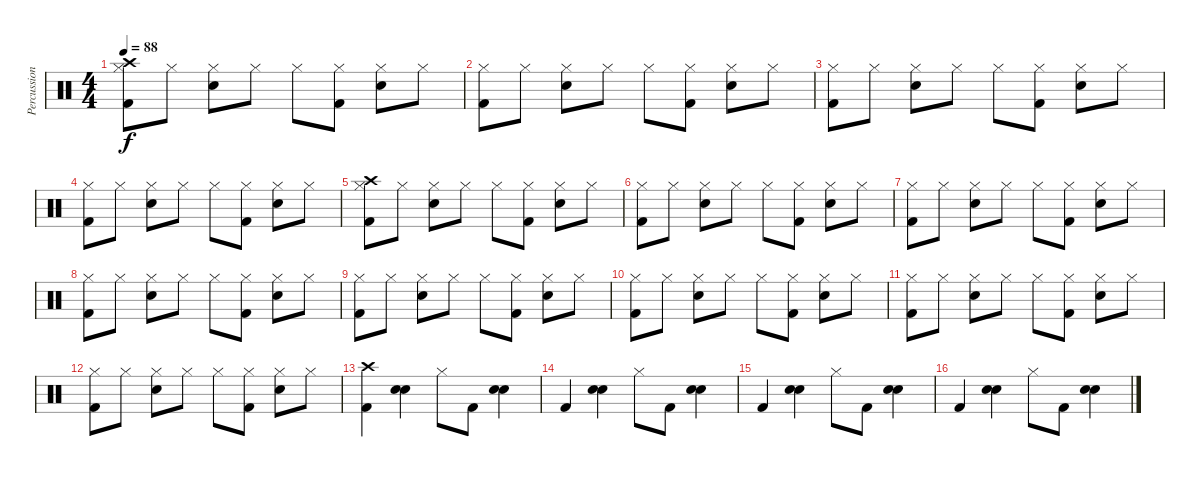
\track ("Percussion" "Percussion") {instrument percussion}
\staff {score}
\articulation defaults
\ts (4 4)
\tempo 88
\clef neutral
\ks c
("Crash high (hit)" "Hi-Hat (closed)" "Kick (hit) 2").8{dy f} "Hi-Hat (closed)".8 ("Hi-Hat (closed)" "Snare (hit) 2").8 "Hi-Hat (closed)".8 "Hi-Hat (closed)".8 ("Hi-Hat (closed)" "Kick (hit) 2").8 ("Hi-Hat (closed)" "Snare (hit) 2").8 "Hi-Hat (closed)".8 |
("Hi-Hat (closed)" "Kick (hit) 2").8 "Hi-Hat (closed)".8 ("Hi-Hat (closed)" "Snare (hit) 2").8 "Hi-Hat (closed)".8 "Hi-Hat (closed)".8 ("Hi-Hat (closed)" "Kick (hit) 2").8 ("Hi-Hat (closed)" "Snare (hit) 2").8 "Hi-Hat (closed)".8 |
("Hi-Hat (closed)" "Kick (hit) 2").8 "Hi-Hat (closed)".8 ("Hi-Hat (closed)" "Snare (hit) 2").8 "Hi-Hat (closed)".8 "Hi-Hat (closed)".8 ("Hi-Hat (closed)" "Kick (hit) 2").8 ("Hi-Hat (closed)" "Snare (hit) 2").8 "Hi-Hat (closed)".8 |
("Hi-Hat (closed)" "Kick (hit) 2").8 "Hi-Hat (closed)".8 ("Hi-Hat (closed)" "Snare (hit) 2").8 "Hi-Hat (closed)".8 "Hi-Hat (closed)".8 ("Hi-Hat (closed)" "Kick (hit) 2").8 ("Hi-Hat (closed)" "Snare (hit) 2").8 "Hi-Hat (closed)".8 |
("Crash high (hit)" "Hi-Hat (closed)" "Kick (hit) 2").8 "Hi-Hat (closed)".8 ("Hi-Hat (closed)" "Snare (hit) 2").8 "Hi-Hat (closed)".8 "Hi-Hat (closed)".8 ("Hi-Hat (closed)" "Kick (hit) 2").8 ("Hi-Hat (closed)" "Snare (hit) 2").8 "Hi-Hat (closed)".8 |
("Hi-Hat (closed)" "Kick (hit) 2").8 "Hi-Hat (closed)".8 ("Hi-Hat (closed)" "Snare (hit) 2").8 "Hi-Hat (closed)".8 "Hi-Hat (closed)".8 ("Hi-Hat (closed)" "Kick (hit) 2").8 ("Hi-Hat (closed)" "Snare (hit) 2").8 "Hi-Hat (closed)".8 |
("Hi-Hat (closed)" "Kick (hit) 2").8 "Hi-Hat (closed)".8 ("Hi-Hat (closed)" "Snare (hit) 2").8 "Hi-Hat (closed)".8 "Hi-Hat (closed)".8 ("Hi-Hat (closed)" "Kick (hit) 2").8 ("Hi-Hat (closed)" "Snare (hit) 2").8 "Hi-Hat (closed)".8 |
("Hi-Hat (closed)" "Kick (hit) 2").8 "Hi-Hat (closed)".8 ("Hi-Hat (closed)" "Snare (hit) 2").8 "Hi-Hat (closed)".8 "Hi-Hat (closed)".8 ("Hi-Hat (closed)" "Kick (hit) 2").8 ("Hi-Hat (closed)" "Snare (hit) 2").8 "Hi-Hat (closed)".8 |
("Hi-Hat (closed)" "Kick (hit) 2").8 "Hi-Hat (closed)".8 ("Hi-Hat (closed)" "Snare (hit) 2").8 "Hi-Hat (closed)".8 "Hi-Hat (closed)".8 ("Hi-Hat (closed)" "Kick (hit) 2").8 ("Hi-Hat (closed)" "Snare (hit) 2").8 "Hi-Hat (closed)".8 |
("Hi-Hat (closed)" "Kick (hit) 2").8 "Hi-Hat (closed)".8 ("Hi-Hat (closed)" "Snare (hit) 2").8 "Hi-Hat (closed)".8 "Hi-Hat (closed)".8 ("Hi-Hat (closed)" "Kick (hit) 2").8 ("Hi-Hat (closed)" "Snare (hit) 2").8 "Hi-Hat (closed)".8 |
("Hi-Hat (closed)" "Kick (hit) 2").8 "Hi-Hat (closed)".8 ("Hi-Hat (closed)" "Snare (hit) 2").8 "Hi-Hat (closed)".8 "Hi-Hat (closed)".8 ("Hi-Hat (closed)" "Kick (hit) 2").8 ("Hi-Hat (closed)" "Snare (hit) 2").8 "Hi-Hat (closed)".8 |
("Hi-Hat (closed)" "Kick (hit) 2").8 "Hi-Hat (closed)".8 ("Hi-Hat (closed)" "Snare (hit) 2").8 "Hi-Hat (closed)".8 "Hi-Hat (closed)".8 ("Hi-Hat (closed)" "Kick (hit) 2").8 ("Hi-Hat (closed)" "Snare (hit) 2").8 "Hi-Hat (closed)".8 |
("Crash high (hit)" "Kick (hit) 2").4 ("Snare (hit) 2" "Snare (hit) 2").4 "Hi-Hat (closed)".8 "Kick (hit) 2".8 ("Snare (hit) 2" "Snare (hit) 2").4 |
"Kick (hit) 2".4 ("Snare (hit) 2" "Snare (hit) 2").4 "Hi-Hat (closed)".8 "Kick (hit) 2".8 ("Snare (hit) 2" "Snare (hit) 2").4 |
"Kick (hit) 2".4 ("Snare (hit) 2" "Snare (hit) 2").4 "Hi-Hat (closed)".8 "Kick (hit) 2".8 ("Snare (hit) 2" "Snare (hit) 2").4 |
"Kick (hit) 2".4 ("Snare (hit) 2" "Snare (hit) 2").4 "Hi-Hat (closed)".8 "Kick (hit) 2".8 ("Snare (hit) 2" "Snare (hit) 2").4
